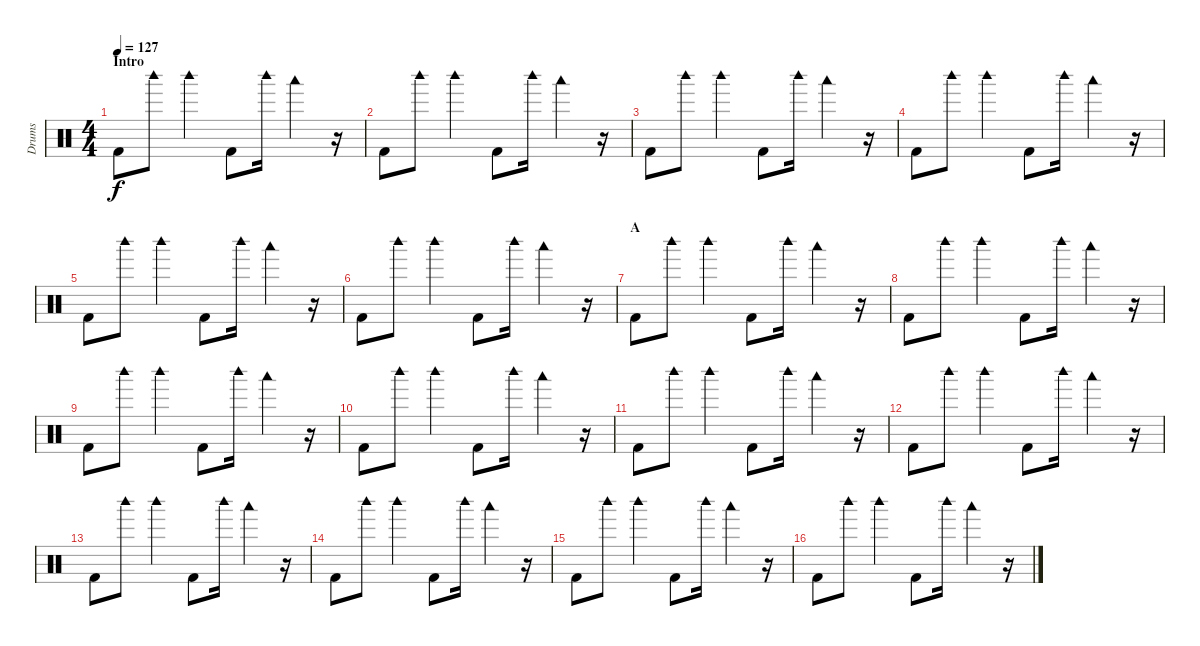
\track ("Drums" "Drums") {instrument percussion}
\staff {score}
\articulation defaults
\ts (4 4)
\section ("" "Intro")
\tempo 127
\clef neutral
\ks c "Kick (hit) 2".8{dy f} "Woodblock high (hit)".8 "Woodblock high (hit)".4 "Kick (hit) 2".8 "Woodblock high (hit)".16 "Woodblock low (hit)".4
r.16 |
"Kick (hit) 2".8 "Woodblock high (hit)".8 "Woodblock high (hit)".4 "Kick (hit) 2".8 "Woodblock high (hit)".16 "Woodblock low (hit)".4 r.16 |
"Kick (hit) 2".8 "Woodblock high (hit)".8 "Woodblock high (hit)".4 "Kick (hit) 2".8 "Woodblock high (hit)".16 "Woodblock low (hit)".4 r.16 |
"Kick (hit) 2".8 "Woodblock high (hit)".8 "Woodblock high (hit)".4 "Kick (hit) 2".8 "Woodblock high (hit)".16 "Woodblock low (hit)".4 r.16 |
"Kick (hit) 2".8 "Woodblock high (hit)".8 "Woodblock high (hit)".4 "Kick (hit) 2".8 "Woodblock high (hit)".16 "Woodblock low (hit)".4 r.16 |
"Kick (hit) 2".8 "Woodblock high (hit)".8 "Woodblock high (hit)".4 "Kick (hit) 2".8 "Woodblock high (hit)".16 "Woodblock low (hit)".4 r.16 |
\section ("" "A")
"Kick (hit) 2".8 "Woodblock high (hit)".8 "Woodblock high (hit)".4 "Kick (hit) 2".8 "Woodblock high (hit)".16 "Woodblock low (hit)".4 r.16 |
"Kick (hit) 2".8 "Woodblock high (hit)".8 "Woodblock high (hit)".4 "Kick (hit) 2".8 "Woodblock high (hit)".16 "Woodblock low (hit)".4 r.16 |
"Kick (hit) 2".8 "Woodblock high (hit)".8 "Woodblock high (hit)".4 "Kick (hit) 2".8 "Woodblock high (hit)".16 "Woodblock low (hit)".4 r.16 |
"Kick (hit) 2".8 "Woodblock high (hit)".8 "Woodblock high (hit)".4 "Kick (hit) 2".8 "Woodblock high (hit)".16 "Woodblock low (hit)".4 r.16 |
"Kick (hit) 2".8 "Woodblock high (hit)".8 "Woodblock high (hit)".4 "Kick (hit) 2".8 "Woodblock high (hit)".16 "Woodblock low (hit)".4 r.16 |
"Kick (hit) 2".8 "Woodblock high (hit)".8 "Woodblock high (hit)".4 "Kick (hit) 2".8 "Woodblock high (hit)".16 "Woodblock low (hit)".4 r.16 |
"Kick (hit) 2".8 "Woodblock high (hit)".8 "Woodblock high (hit)".4 "Kick (hit) 2".8 "Woodblock high (hit)".16 "Woodblock low (hit)".4 r.16 |
"Kick (hit) 2".8 "Woodblock high (hit)".8 "Woodblock high (hit)".4 "Kick (hit) 2".8 "Woodblock high (hit)".16 "Woodblock low (hit)".4 r.16 |
"Kick (hit) 2".8 "Woodblock high (hit)".8 "Woodblock high (hit)".4 "Kick (hit) 2".8 "Woodblock high (hit)".16 "Woodblock low (hit)".4 r.16 |
"Kick (hit) 2".8 "Woodblock high (hit)".8 "Woodblock high (hit)".4 "Kick (hit) 2".8 "Woodblock high (hit)".16 "Woodblock low (hit)".4 r.16
